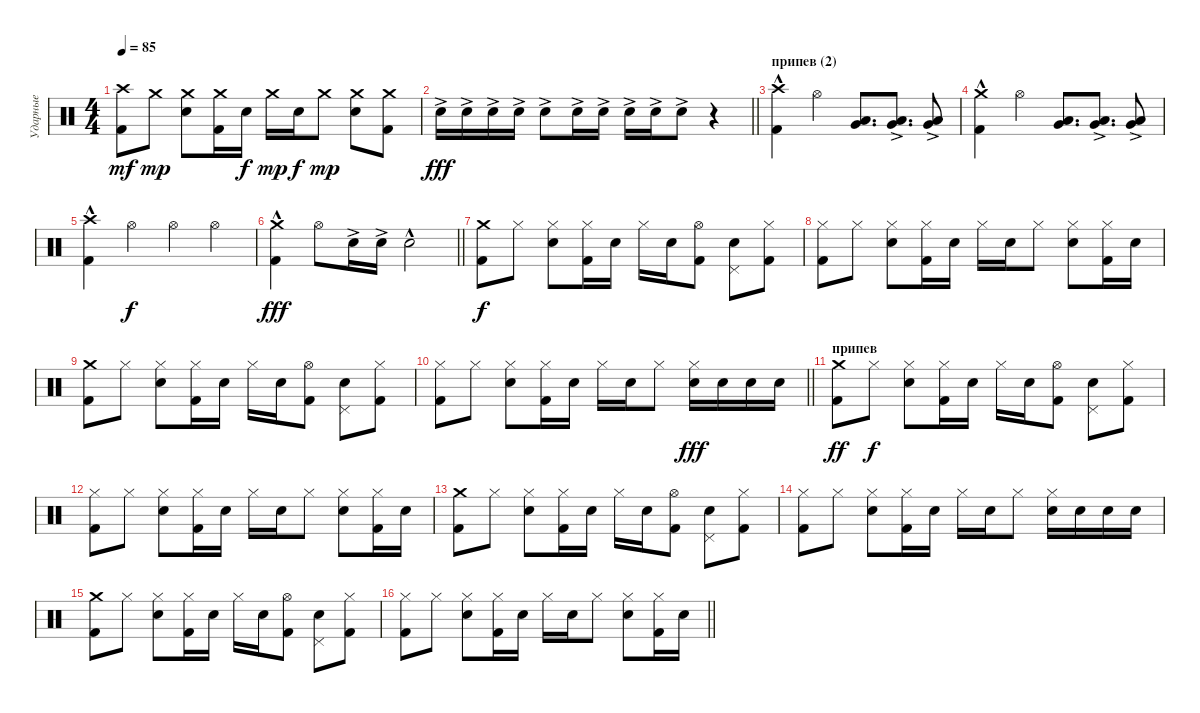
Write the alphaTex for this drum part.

\track ("Ударные" "Ударные") {instrument percussion}
\staff {score}
\articulation defaults
\ts (4 4)
\tempo 85
\clef neutral
\ks c
("Crash high (hit)" "Kick (hit) 2").8{dy mf} "Crash medium (hit)".8{dy mp} ("Crash medium (hit)" "Snare (hit) 2").8 ("Crash medium (hit)" "Kick (hit) 2").16 "Snare (hit) 2".16{dy f} "Crash medium (hit)".16{dy mp} "Snare (hit) 2".16{dy f} "Crash medium (hit)".8{dy mp} ("Crash medium (hit)" "Snare (hit) 2").8 ("Crash medium (hit)" "Kick (hit) 2").8 |
\barLineRight lightlight "Snare (hit) 2"{ac}.16{dy fff} "Snare (hit) 2"{ac}.16 "Snare (hit) 2"{ac}.16 "Snare (hit) 2"{ac}.16 "Snare (hit) 2"{ac}.8 "Snare (hit) 2"{ac}.16 "Snare (hit) 2"{ac}.16 "Snare (hit) 2"{ac}.16 "Snare (hit) 2"{ac}.16 "Snare (hit) 2"{ac}.8
r.4 |
\section ("" "припев (2)")
("Crash high (hit)"{hac} "Kick (hit) 2"{hac}).4 "Hi-Hat (open)".4 ("Low Tom (hit)" "Very Low Tom (hit)").8{d} ("Very Low Tom (hit)" "Low Floor Tom (hit)"{ac}).8{d} ("Very Low Tom (hit)" "Low Floor Tom (hit)"{ac}).8 |
("Crash medium (hit)"{hac} "Kick (hit) 2"{hac}).4 "Hi-Hat (open)".4 ("Low Tom (hit)" "Very Low Tom (hit)").8{d} ("Very Low Tom (hit)" "Low Floor Tom (hit)"{ac}).8{d} ("Very Low Tom (hit)" "Low Floor Tom (hit)"{ac}).8 |
("Crash high (hit)" "Kick (hit) 2"{hac}).4 "Hi-Hat (open)".4{dy f} "Hi-Hat (open)".4 "Hi-Hat (open)".4 |
\barLineRight lightlight
("Crash medium (hit)"{hac} "Kick (hit) 2"{hac}).4{dy fff} "Hi-Hat (open)".8 "Snare (hit) 2"{ac}.16 "Snare (hit) 2"{ac}.16 "Snare (hit) 2"{hac}.2 |
\section ("" "")
("Crash medium (hit)" "Kick (hit) 2").8{dy f} "Hi-Hat (closed)".8 ("Hi-Hat (closed)" "Snare (hit) 2").8 ("Hi-Hat (closed)" "Kick (hit) 2").16 "Snare (hit) 2".16 "Hi-Hat (closed)".16 "Snare (hit) 2".16 ("Hi-Hat (open)" "Kick (hit) 2").8 ("Snare (hit) 2" "Pedal Hi-Hat (hit)").8 ("Hi-Hat (closed)" "Kick (hit) 2").8 |
("Hi-Hat (closed)" "Kick (hit) 2").8 "Hi-Hat (closed)".8 ("Hi-Hat (closed)" "Snare (hit) 2").8 ("Hi-Hat (closed)" "Kick (hit) 2").16 "Snare (hit) 2".16 "Hi-Hat (closed)".16 "Snare (hit) 2".16 "Hi-Hat (closed)".8 ("Hi-Hat (closed)" "Snare (hit) 2").8 ("Hi-Hat (closed)" "Kick (hit) 2").16 "Snare (hit) 2".16 |
("Crash medium (hit)" "Kick (hit) 2").8 "Hi-Hat (closed)".8 ("Hi-Hat (closed)" "Snare (hit) 2").8 ("Hi-Hat (closed)" "Kick (hit) 2").16 "Snare (hit) 2".16 "Hi-Hat (closed)".16 "Snare (hit) 2".16 ("Hi-Hat (open)" "Kick (hit) 2").8 ("Snare (hit) 2" "Pedal Hi-Hat (hit)").8 ("Hi-Hat (closed)" "Kick (hit) 2").8 |
\barLineRight lightlight
("Hi-Hat (closed)" "Kick (hit) 2").8 "Hi-Hat (closed)".8 ("Hi-Hat (closed)" "Snare (hit) 2").8 ("Hi-Hat (closed)" "Kick (hit) 2").16 "Snare (hit) 2".16 "Hi-Hat (closed)".16 "Snare (hit) 2".16 "Hi-Hat (closed)".8 ("Hi-Hat (closed)" "Snare (hit) 2").16{dy fff} "Snare (hit) 2".16 "Snare (hit) 2".16 "Snare (hit) 2".16 |
\section ("" "припев")
("Crash medium (hit)" "Kick (hit) 2").8{dy ff} "Hi-Hat (closed)".8{dy f} ("Hi-Hat (closed)" "Snare (hit) 2").8 ("Hi-Hat (closed)" "Kick (hit) 2").16 "Snare (hit) 2".16 "Hi-Hat (closed)".16 "Snare (hit) 2".16 ("Hi-Hat (open)" "Kick (hit) 2").8 ("Snare (hit) 2" "Pedal Hi-Hat (hit)").8 ("Hi-Hat (closed)" "Kick (hit) 2").8 |
("Hi-Hat (closed)" "Kick (hit) 2").8 "Hi-Hat (closed)".8 ("Hi-Hat (closed)" "Snare (hit) 2").8 ("Hi-Hat (closed)" "Kick (hit) 2").16 "Snare (hit) 2".16 "Hi-Hat (closed)".16 "Snare (hit) 2".16 "Hi-Hat (closed)".8 ("Hi-Hat (closed)" "Snare (hit) 2").8 ("Hi-Hat (closed)" "Kick (hit) 2").16 "Snare (hit) 2".16 |
("Crash medium (hit)" "Kick (hit) 2").8 "Hi-Hat (closed)".8 ("Hi-Hat (closed)" "Snare (hit) 2").8 ("Hi-Hat (closed)" "Kick (hit) 2").16 "Snare (hit) 2".16 "Hi-Hat (closed)".16 "Snare (hit) 2".16 ("Hi-Hat (open)" "Kick (hit) 2").8 ("Snare (hit) 2" "Pedal Hi-Hat (hit)").8 ("Hi-Hat (closed)" "Kick (hit) 2").8 |
("Hi-Hat (closed)" "Kick (hit) 2").8 "Hi-Hat (closed)".8 ("Hi-Hat (closed)" "Snare (hit) 2").8 ("Hi-Hat (closed)" "Kick (hit) 2").16 "Snare (hit) 2".16 "Hi-Hat (closed)".16 "Snare (hit) 2".16 "Hi-Hat (closed)".8 ("Hi-Hat (closed)" "Snare (hit) 2").16 "Snare (hit) 2".16 "Snare (hit) 2".16 "Snare (hit) 2".16 |
("Crash medium (hit)" "Kick (hit) 2").8 "Hi-Hat (closed)".8 ("Hi-Hat (closed)" "Snare (hit) 2").8 ("Hi-Hat (closed)" "Kick (hit) 2").16 "Snare (hit) 2".16 "Hi-Hat (closed)".16 "Snare (hit) 2".16 ("Hi-Hat (open)" "Kick (hit) 2").8 ("Snare (hit) 2" "Pedal Hi-Hat (hit)").8 ("Hi-Hat (closed)" "Kick (hit) 2").8 |
\barLineRight lightlight
("Hi-Hat (closed)" "Kick (hit) 2").8 "Hi-Hat (closed)".8 ("Hi-Hat (closed)" "Snare (hit) 2").8 ("Hi-Hat (closed)" "Kick (hit) 2").16 "Snare (hit) 2".16 "Hi-Hat (closed)".16 "Snare (hit) 2".16 "Hi-Hat (closed)".8 ("Hi-Hat (closed)" "Snare (hit) 2").8 ("Hi-Hat (closed)" "Kick (hit) 2").16 "Snare (hit) 2".16
